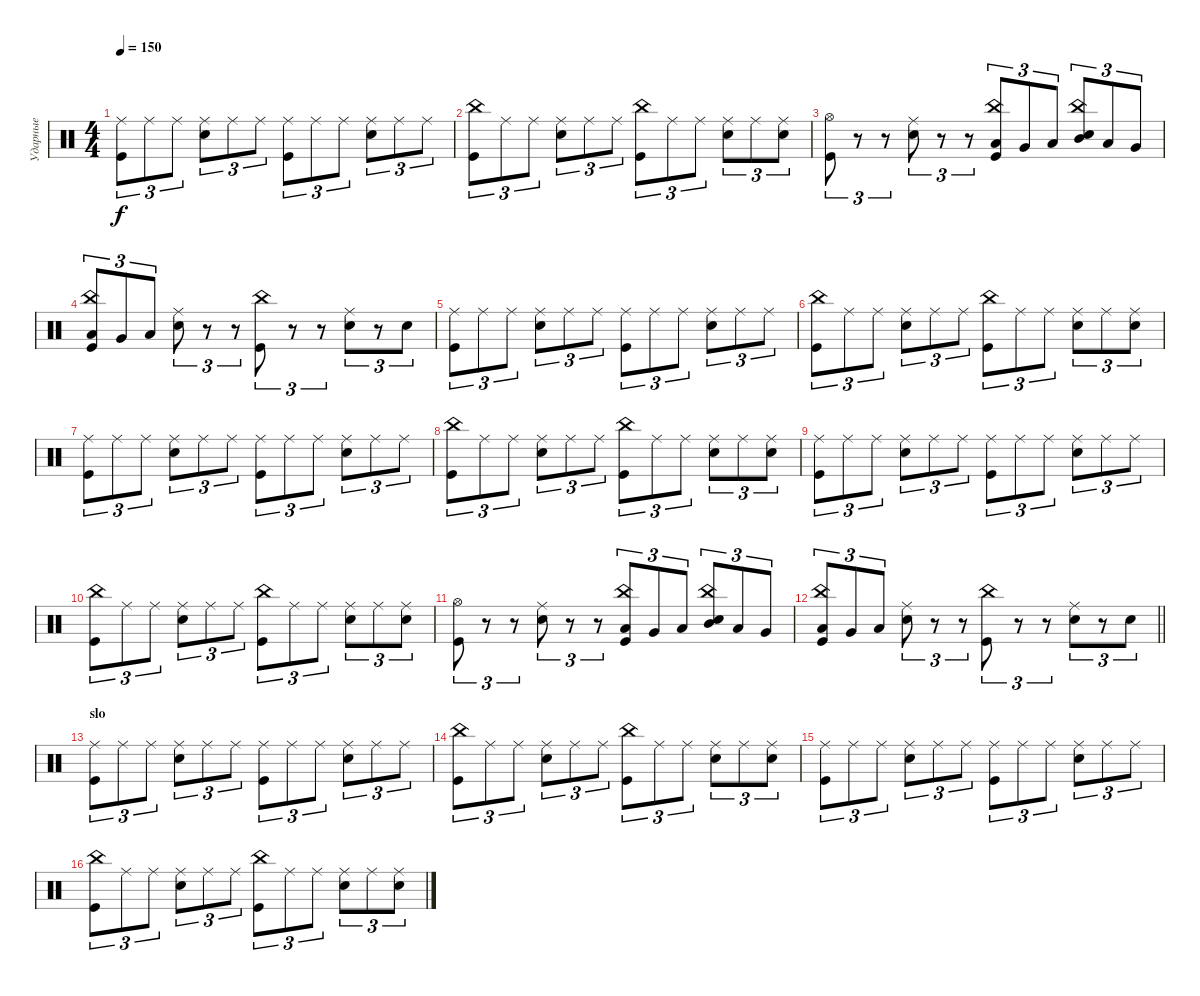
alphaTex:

\track ("Ударные" "Ударные") {instrument percussion}
\staff {score}
\articulation defaults
\ts (4 4)
\tempo 150
\clef neutral
\ks c
("Ride (middle)" "Kick (hit)").8{tu (3 2) dy f} "Ride (middle)".8{tu (3 2)} "Ride (middle)".8{tu (3 2)} ("Ride (middle)" "Electric Snare (hit)").8{tu (3 2)} "Ride (middle)".8{tu (3 2)} "Ride (middle)".8{tu (3 2)} ("Ride (middle)" "Kick (hit)").8{tu (3 2)} "Ride (middle)".8{tu (3 2)} "Ride (middle)".8{tu (3 2)} ("Ride (middle)" "Electric Snare (hit)").8{tu (3 2)} "Ride (middle)".8{tu (3 2)} "Ride (middle)".8{tu (3 2)} |
("China (hit)" "Kick (hit)").8{tu (3 2)} "Ride (middle)".8{tu (3 2)} "Ride (middle)".8{tu (3 2)} ("Ride (middle)" "Electric Snare (hit)").8{tu (3 2)} "Ride (middle)".8{tu (3 2)} "Ride (middle)".8{tu (3 2)} ("China (hit)" "Kick (hit)").8{tu (3 2)} "Ride (middle)".8{tu (3 2)} "Ride (middle)".8{tu (3 2)} ("Ride (middle)" "Electric Snare (hit)").8{tu (3 2)} "Ride (middle)".8{tu (3 2)} ("Ride (middle)" "Electric Snare (hit)").8{tu (3 2)} |
("Hi-Hat (open)" "Kick (hit)").8{tu (3 2)} r.8{tu (3 2)} r.8{tu (3 2)} ("Ride (middle)" "Electric Snare (hit)").8{tu (3 2)} r.8{tu (3 2)} r.8{tu (3 2)} ("China (hit)" "Low Floor Tom (hit)" "Kick (hit)").8{tu (3 2)} "Very Low Tom (hit)".8{tu (3 2)} "Low Tom (hit)".8{tu (3 2)} ("China (hit)" "Mid Tom (hit)" "Electric Snare (hit)").8{tu (3 2)} "Low Tom (hit)".8{tu (3 2)} "Very Low Tom (hit)".8{tu (3 2)} |
("China (hit)" "Low Floor Tom (hit)" "Kick (hit)").8{tu (3 2)} "Very Low Tom (hit)".8{tu (3 2)} "Low Floor Tom (hit)".8{tu (3 2)} ("Ride (middle)" "Electric Snare (hit)").8{tu (3 2)} r.8{tu (3 2)} r.8{tu (3 2)} ("China (hit)" "Kick (hit)").8{tu (3 2)} r.8{tu (3 2)} r.8{tu (3 2)} ("Ride (middle)" "Electric Snare (hit)").8{tu (3 2)} r.8{tu (3 2)} "Electric Snare (hit)".8{tu (3 2)} |
("Ride (middle)" "Kick (hit)").8{tu (3 2)} "Ride (middle)".8{tu (3 2)} "Ride (middle)".8{tu (3 2)} ("Ride (middle)" "Electric Snare (hit)").8{tu (3 2)} "Ride (middle)".8{tu (3 2)} "Ride (middle)".8{tu (3 2)} ("Ride (middle)" "Kick (hit)").8{tu (3 2)} "Ride (middle)".8{tu (3 2)} "Ride (middle)".8{tu (3 2)} ("Ride (middle)" "Electric Snare (hit)").8{tu (3 2)} "Ride (middle)".8{tu (3 2)} "Ride (middle)".8{tu (3 2)} |
("China (hit)" "Kick (hit)").8{tu (3 2)} "Ride (middle)".8{tu (3 2)} "Ride (middle)".8{tu (3 2)} ("Ride (middle)" "Electric Snare (hit)").8{tu (3 2)} "Ride (middle)".8{tu (3 2)} "Ride (middle)".8{tu (3 2)} ("China (hit)" "Kick (hit)").8{tu (3 2)} "Ride (middle)".8{tu (3 2)} "Ride (middle)".8{tu (3 2)} ("Ride (middle)" "Electric Snare (hit)").8{tu (3 2)} "Ride (middle)".8{tu (3 2)} ("Ride (middle)" "Electric Snare (hit)").8{tu (3 2)} |
("Ride (middle)" "Kick (hit)").8{tu (3 2)} "Ride (middle)".8{tu (3 2)} "Ride (middle)".8{tu (3 2)} ("Ride (middle)" "Electric Snare (hit)").8{tu (3 2)} "Ride (middle)".8{tu (3 2)} "Ride (middle)".8{tu (3 2)} ("Ride (middle)" "Kick (hit)").8{tu (3 2)} "Ride (middle)".8{tu (3 2)} "Ride (middle)".8{tu (3 2)} ("Ride (middle)" "Electric Snare (hit)").8{tu (3 2)} "Ride (middle)".8{tu (3 2)} "Ride (middle)".8{tu (3 2)} |
("China (hit)" "Kick (hit)").8{tu (3 2)} "Ride (middle)".8{tu (3 2)} "Ride (middle)".8{tu (3 2)} ("Ride (middle)" "Electric Snare (hit)").8{tu (3 2)} "Ride (middle)".8{tu (3 2)} "Ride (middle)".8{tu (3 2)} ("China (hit)" "Kick (hit)").8{tu (3 2)} "Ride (middle)".8{tu (3 2)} "Ride (middle)".8{tu (3 2)} ("Ride (middle)" "Electric Snare (hit)").8{tu (3 2)} "Ride (middle)".8{tu (3 2)} ("Ride (middle)" "Electric Snare (hit)").8{tu (3 2)} |
("Ride (middle)" "Kick (hit)").8{tu (3 2)} "Ride (middle)".8{tu (3 2)} "Ride (middle)".8{tu (3 2)} ("Ride (middle)" "Electric Snare (hit)").8{tu (3 2)} "Ride (middle)".8{tu (3 2)} "Ride (middle)".8{tu (3 2)} ("Ride (middle)" "Kick (hit)").8{tu (3 2)} "Ride (middle)".8{tu (3 2)} "Ride (middle)".8{tu (3 2)} ("Ride (middle)" "Electric Snare (hit)").8{tu (3 2)} "Ride (middle)".8{tu (3 2)} "Ride (middle)".8{tu (3 2)} |
("China (hit)" "Kick (hit)").8{tu (3 2)} "Ride (middle)".8{tu (3 2)} "Ride (middle)".8{tu (3 2)} ("Ride (middle)" "Electric Snare (hit)").8{tu (3 2)} "Ride (middle)".8{tu (3 2)} "Ride (middle)".8{tu (3 2)} ("China (hit)" "Kick (hit)").8{tu (3 2)} "Ride (middle)".8{tu (3 2)} "Ride (middle)".8{tu (3 2)} ("Ride (middle)" "Electric Snare (hit)").8{tu (3 2)} "Ride (middle)".8{tu (3 2)} ("Ride (middle)" "Electric Snare (hit)").8{tu (3 2)} |
("Hi-Hat (open)" "Kick (hit)").8{tu (3 2)} r.8{tu (3 2)} r.8{tu (3 2)} ("Ride (middle)" "Electric Snare (hit)").8{tu (3 2)} r.8{tu (3 2)} r.8{tu (3 2)} ("China (hit)" "Low Floor Tom (hit)" "Kick (hit)").8{tu (3 2)} "Very Low Tom (hit)".8{tu (3 2)} "Low Tom (hit)".8{tu (3 2)} ("China (hit)" "Mid Tom (hit)" "Electric Snare (hit)").8{tu (3 2)} "Low Tom (hit)".8{tu (3 2)} "Very Low Tom (hit)".8{tu (3 2)} |
\barLineRight lightlight
("China (hit)" "Low Floor Tom (hit)" "Kick (hit)").8{tu (3 2)} "Very Low Tom (hit)".8{tu (3 2)} "Low Floor Tom (hit)".8{tu (3 2)} ("Ride (middle)" "Electric Snare (hit)").8{tu (3 2)} r.8{tu (3 2)} r.8{tu (3 2)} ("China (hit)" "Kick (hit)").8{tu (3 2)} r.8{tu (3 2)} r.8{tu (3 2)} ("Ride (middle)" "Electric Snare (hit)").8{tu (3 2)} r.8{tu (3 2)} "Electric Snare (hit)".8{tu (3 2)} |
\section ("" "slo")
("Ride (middle)" "Kick (hit)").8{tu (3 2)} "Ride (middle)".8{tu (3 2)} "Ride (middle)".8{tu (3 2)} ("Ride (middle)" "Electric Snare (hit)").8{tu (3 2)} "Ride (middle)".8{tu (3 2)} "Ride (middle)".8{tu (3 2)} ("Ride (middle)" "Kick (hit)").8{tu (3 2)} "Ride (middle)".8{tu (3 2)} "Ride (middle)".8{tu (3 2)} ("Ride (middle)" "Electric Snare (hit)").8{tu (3 2)} "Ride (middle)".8{tu (3 2)} "Ride (middle)".8{tu (3 2)} |
("China (hit)" "Kick (hit)").8{tu (3 2)} "Ride (middle)".8{tu (3 2)} "Ride (middle)".8{tu (3 2)} ("Ride (middle)" "Electric Snare (hit)").8{tu (3 2)} "Ride (middle)".8{tu (3 2)} "Ride (middle)".8{tu (3 2)} ("China (hit)" "Kick (hit)").8{tu (3 2)} "Ride (middle)".8{tu (3 2)} "Ride (middle)".8{tu (3 2)} ("Ride (middle)" "Electric Snare (hit)").8{tu (3 2)} "Ride (middle)".8{tu (3 2)} ("Ride (middle)" "Electric Snare (hit)").8{tu (3 2)} |
("Ride (middle)" "Kick (hit)").8{tu (3 2)} "Ride (middle)".8{tu (3 2)} "Ride (middle)".8{tu (3 2)} ("Ride (middle)" "Electric Snare (hit)").8{tu (3 2)} "Ride (middle)".8{tu (3 2)} "Ride (middle)".8{tu (3 2)} ("Ride (middle)" "Kick (hit)").8{tu (3 2)} "Ride (middle)".8{tu (3 2)} "Ride (middle)".8{tu (3 2)} ("Ride (middle)" "Electric Snare (hit)").8{tu (3 2)} "Ride (middle)".8{tu (3 2)} "Ride (middle)".8{tu (3 2)} |
("China (hit)" "Kick (hit)").8{tu (3 2)} "Ride (middle)".8{tu (3 2)} "Ride (middle)".8{tu (3 2)} ("Ride (middle)" "Electric Snare (hit)").8{tu (3 2)} "Ride (middle)".8{tu (3 2)} "Ride (middle)".8{tu (3 2)} ("China (hit)" "Kick (hit)").8{tu (3 2)} "Ride (middle)".8{tu (3 2)} "Ride (middle)".8{tu (3 2)} ("Ride (middle)" "Electric Snare (hit)").8{tu (3 2)} "Ride (middle)".8{tu (3 2)} ("Ride (middle)" "Electric Snare (hit)").8{tu (3 2)}
